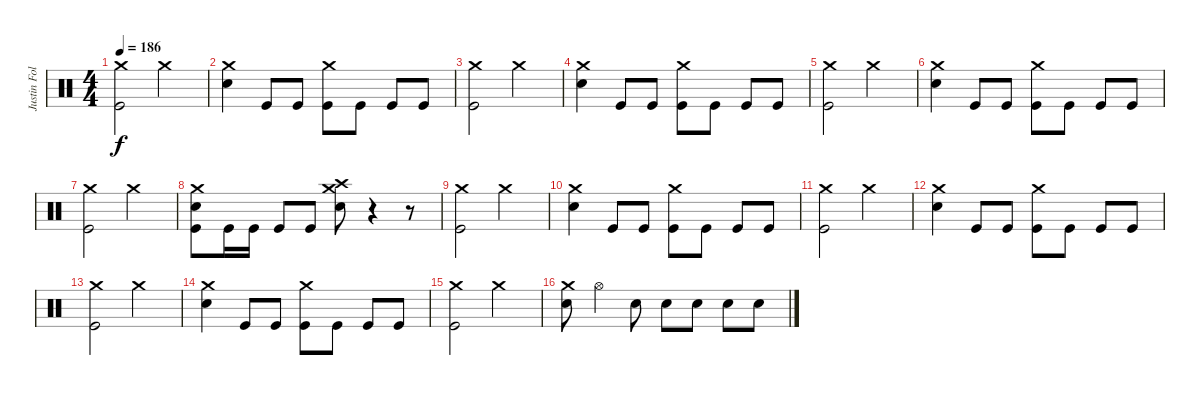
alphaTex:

\track ("Justin Foley" "Justin Fol") {instrument percussion}
\staff {score}
\articulation defaults
\ts (4 4)
\tempo 186
\clef neutral
\ks c
("Crash medium (hit)" "Kick (hit)").2{dy f} "Crash medium (hit)".2 |
("Crash medium (hit)" "Electric Snare (hit)").4 "Kick (hit)".8 "Kick (hit)".8 ("Crash medium (hit)" "Kick (hit)").8 "Kick (hit)".8 "Kick (hit)".8 "Kick (hit)".8 |
("Crash medium (hit)" "Kick (hit)").2 "Crash medium (hit)".2 |
("Crash medium (hit)" "Electric Snare (hit)").4 "Kick (hit)".8 "Kick (hit)".8 ("Crash medium (hit)" "Kick (hit)").8 "Kick (hit)".8 "Kick (hit)".8 "Kick (hit)".8 |
("Crash medium (hit)" "Kick (hit)").2 "Crash medium (hit)".2 |
("Crash medium (hit)" "Electric Snare (hit)").4 "Kick (hit)".8 "Kick (hit)".8 ("Crash medium (hit)" "Kick (hit)").8 "Kick (hit)".8 "Kick (hit)".8 "Kick (hit)".8 |
("Crash medium (hit)" "Kick (hit)").2 "Crash medium (hit)".2 |
("Crash medium (hit)" "Electric Snare (hit)" "Kick (hit)").8 "Kick (hit)".16 "Kick (hit)".16 "Kick (hit)".8 "Kick (hit)".8 ("Crash medium (hit)" "Crash high (hit)" "Electric Snare (hit)").8 r.4 r.8 |
("Crash medium (hit)" "Kick (hit)").2 "Crash medium (hit)".2 |
("Crash medium (hit)" "Electric Snare (hit)").4 "Kick (hit)".8 "Kick (hit)".8 ("Crash medium (hit)" "Kick (hit)").8 "Kick (hit)".8 "Kick (hit)".8 "Kick (hit)".8 |
("Crash medium (hit)" "Kick (hit)").2 "Crash medium (hit)".2 |
("Crash medium (hit)" "Electric Snare (hit)").4 "Kick (hit)".8 "Kick (hit)".8 ("Crash medium (hit)" "Kick (hit)").8 "Kick (hit)".8 "Kick (hit)".8 "Kick (hit)".8 |
("Crash medium (hit)" "Kick (hit)").2 "Crash medium (hit)".2 |
("Crash medium (hit)" "Electric Snare (hit)").4 "Kick (hit)".8 "Kick (hit)".8 ("Crash medium (hit)" "Kick (hit)").8 "Kick (hit)".8 "Kick (hit)".8 "Kick (hit)".8 |
("Crash medium (hit)" "Kick (hit)").2 "Crash medium (hit)".2 |
("Crash medium (hit)" "Electric Snare (hit)").8 "Hi-Hat (open)".4 "Electric Snare (hit)".8 "Electric Snare (hit)".8 "Electric Snare (hit)".8 "Electric Snare (hit)".8 "Electric Snare (hit)".8
